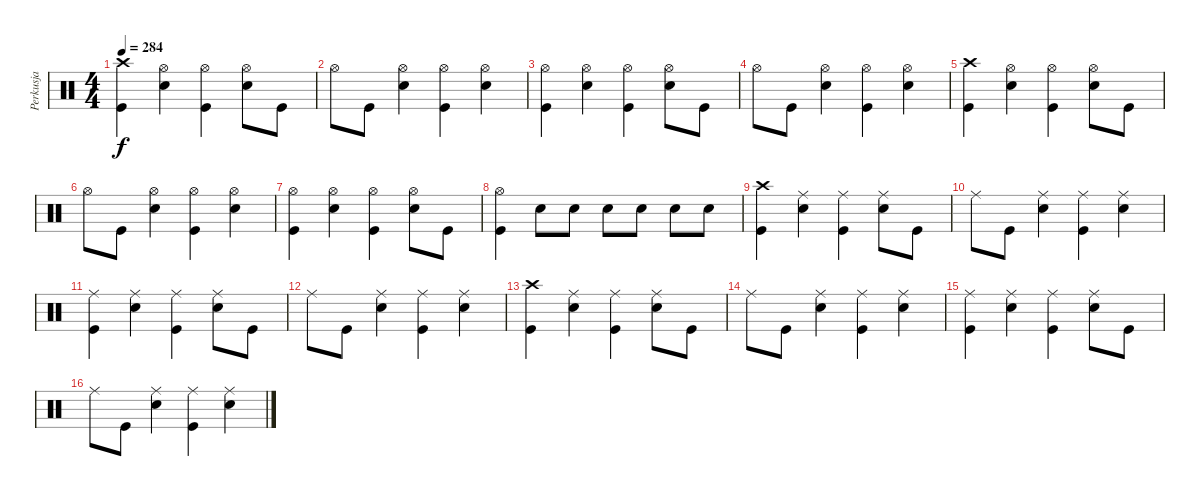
\track ("Perkusja" "Perkusja") {instrument percussion}
\staff {score}
\articulation defaults
\ts (4 4)
\tempo 284
\clef neutral
\ks c
("Kick (hit)" "Crash high (hit)").4{dy f} ("Hi-Hat (open)" "Snare (hit) 2").4 ("Hi-Hat (open)" "Kick (hit)").4 ("Hi-Hat (open)" "Snare (hit) 2").8 "Kick (hit)".8 |
"Hi-Hat (open)".8 "Kick (hit)".8 ("Hi-Hat (open)" "Snare (hit) 2").4 ("Hi-Hat (open)" "Kick (hit)").4 ("Hi-Hat (open)" "Snare (hit) 2").4 |
("Hi-Hat (open)" "Kick (hit)").4 ("Hi-Hat (open)" "Snare (hit) 2").4 ("Hi-Hat (open)" "Kick (hit)").4 ("Hi-Hat (open)" "Snare (hit) 2").8 "Kick (hit)".8 |
"Hi-Hat (open)".8 "Kick (hit)".8 ("Hi-Hat (open)" "Snare (hit) 2").4 ("Hi-Hat (open)" "Kick (hit)").4 ("Hi-Hat (open)" "Snare (hit) 2").4 |
("Kick (hit)" "Crash high (hit)").4 ("Hi-Hat (open)" "Snare (hit) 2").4 ("Hi-Hat (open)" "Kick (hit)").4 ("Hi-Hat (open)" "Snare (hit) 2").8 "Kick (hit)".8 |
"Hi-Hat (open)".8 "Kick (hit)".8 ("Hi-Hat (open)" "Snare (hit) 2").4 ("Hi-Hat (open)" "Kick (hit)").4 ("Hi-Hat (open)" "Snare (hit) 2").4 |
("Hi-Hat (open)" "Kick (hit)").4 ("Hi-Hat (open)" "Snare (hit) 2").4 ("Hi-Hat (open)" "Kick (hit)").4 ("Hi-Hat (open)" "Snare (hit) 2").8 "Kick (hit)".8 |
("Kick (hit)" "Hi-Hat (open)").4 "Snare (hit) 2".8 "Snare (hit) 2".8 "Snare (hit) 2".8 "Snare (hit) 2".8 "Snare (hit) 2".8 "Snare (hit) 2".8 |
("Kick (hit)" "Crash high (hit)").4 ("Ride (middle)" "Snare (hit) 2").4 ("Ride (middle)" "Kick (hit)").4 ("Ride (middle)" "Snare (hit) 2").8 "Kick (hit)".8 |
"Ride (middle)".8 "Kick (hit)".8 ("Ride (middle)" "Snare (hit) 2").4 ("Ride (middle)" "Kick (hit)").4 ("Ride (middle)" "Snare (hit) 2").4 |
("Ride (middle)" "Kick (hit)").4 ("Ride (middle)" "Snare (hit) 2").4 ("Ride (middle)" "Kick (hit)").4 ("Ride (middle)" "Snare (hit) 2").8 "Kick (hit)".8 |
"Ride (middle)".8 "Kick (hit)".8 ("Ride (middle)" "Snare (hit) 2").4 ("Ride (middle)" "Kick (hit)").4 ("Ride (middle)" "Snare (hit) 2").4 |
("Kick (hit)" "Crash high (hit)").4 ("Ride (middle)" "Snare (hit) 2").4 ("Ride (middle)" "Kick (hit)").4 ("Ride (middle)" "Snare (hit) 2").8 "Kick (hit)".8 |
"Ride (middle)".8 "Kick (hit)".8 ("Ride (middle)" "Snare (hit) 2").4 ("Ride (middle)" "Kick (hit)").4 ("Ride (middle)" "Snare (hit) 2").4 |
("Ride (middle)" "Kick (hit)").4 ("Ride (middle)" "Snare (hit) 2").4 ("Ride (middle)" "Kick (hit)").4 ("Ride (middle)" "Snare (hit) 2").8 "Kick (hit)".8 |
"Ride (middle)".8 "Kick (hit)".8 ("Ride (middle)" "Snare (hit) 2").4 ("Ride (middle)" "Kick (hit)").4 ("Ride (middle)" "Snare (hit) 2").4
